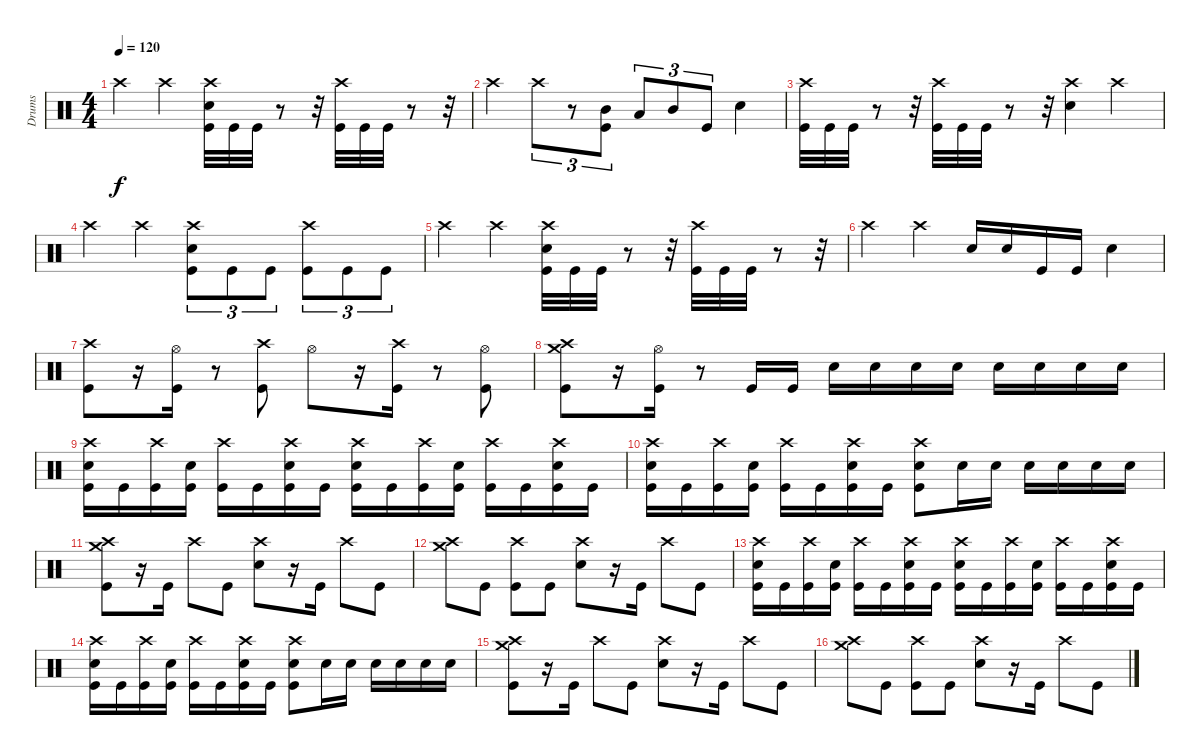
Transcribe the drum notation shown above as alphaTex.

\track ("Drums" "Drums") {instrument percussion}
\staff {score}
\articulation defaults
\ts (4 4)
\tempo 120
\clef neutral
\ks c "Crash high (hit)".4{dy f} "Crash high (hit)".4
("Crash high (hit)" "Snare (hit) 2" "Kick (hit)").32 "Kick (hit)".32 "Kick (hit)".32 r.8 r.32 ("Crash high (hit)" "Kick (hit)").32 "Kick (hit)".32 "Kick (hit)".32 r.8 r.32 |
"Crash high (hit)".4 "Crash high (hit)".8{tu (3 2)} r.8{tu (3 2)} ("Mid Tom (hit)" "Kick (hit)").8{tu (3 2)} "Low Floor Tom (hit)".8{tu (3 2)} "Mid Tom (hit)".8{tu (3 2)} "Kick (hit)".8{tu (3 2)} "Snare (hit) 2".4 |
("Crash high (hit)" "Kick (hit)").32 "Kick (hit)".32 "Kick (hit)".32 r.8 r.32 ("Crash high (hit)" "Kick (hit)").32 "Kick (hit)".32 "Kick (hit)".32 r.8 r.32 ("Crash high (hit)" "Snare (hit) 2").4 "Crash high (hit)".4 |
"Crash high (hit)".4 "Crash high (hit)".4 ("Crash high (hit)" "Snare (hit) 2" "Kick (hit)").8{tu (3 2)} "Kick (hit)".8{tu (3 2)} "Kick (hit)".8{tu (3 2)} ("Crash high (hit)" "Kick (hit)").8{tu (3 2)} "Kick (hit)".8{tu (3 2)} "Kick (hit)".8{tu (3 2)} |
"Crash high (hit)".4 "Crash high (hit)".4 ("Crash high (hit)" "Snare (hit) 2" "Kick (hit)").32 "Kick (hit)".32 "Kick (hit)".32 r.8 r.32 ("Crash high (hit)" "Kick (hit)").32 "Kick (hit)".32 "Kick (hit)".32 r.8 r.32 |
"Crash high (hit)".4 "Crash high (hit)".4 "Snare (hit) 2".16 "Snare (hit) 2".16 "Kick (hit)".16 "Kick (hit)".16 "Snare (hit) 2".4 |
("Crash high (hit)" "Kick (hit)").8 r.16 ("Hi-Hat (open)" "Kick (hit)").16 r.8 ("Crash high (hit)" "Kick (hit)").8 "Hi-Hat (open)".8 r.16 ("Crash high (hit)" "Kick (hit)").16 r.8 ("Hi-Hat (open)" "Kick (hit)").8 |
("Crash high (hit)" "Crash medium (hit)" "Kick (hit)").8 r.16 ("Hi-Hat (open)" "Kick (hit)").16 r.8 "Kick (hit)".16 "Kick (hit)".16 "Snare (hit) 2".16 "Snare (hit) 2".16 "Snare (hit) 2".16 "Snare (hit) 2".16 "Snare (hit) 2".16 "Snare (hit) 2".16 "Snare (hit) 2".16 "Snare (hit) 2".16 |
("Crash high (hit)" "Snare (hit) 2" "Kick (hit)").16 "Kick (hit)".16 ("Crash high (hit)" "Kick (hit)").16 ("Snare (hit) 2" "Kick (hit)").16 ("Crash high (hit)" "Kick (hit)").16 "Kick (hit)".16 ("Crash high (hit)" "Snare (hit) 2" "Kick (hit)").16 "Kick (hit)".16 ("Crash high (hit)" "Snare (hit) 2" "Kick (hit)").16 "Kick (hit)".16 ("Crash high (hit)" "Kick (hit)").16 ("Snare (hit) 2" "Kick (hit)").16 ("Crash high (hit)" "Kick (hit)").16 "Kick (hit)".16 ("Crash high (hit)" "Snare (hit) 2" "Kick (hit)").16 "Kick (hit)".16 |
("Crash high (hit)" "Snare (hit) 2" "Kick (hit)").16 "Kick (hit)".16 ("Crash high (hit)" "Kick (hit)").16 ("Snare (hit) 2" "Kick (hit)").16 ("Crash high (hit)" "Kick (hit)").16 "Kick (hit)".16 ("Crash high (hit)" "Snare (hit) 2" "Kick (hit)").16 "Kick (hit)".16 ("Crash high (hit)" "Snare (hit) 2" "Kick (hit)").8 "Snare (hit) 2".16 "Snare (hit) 2".16 "Snare (hit) 2".16 "Snare (hit) 2".16 "Snare (hit) 2".16 "Snare (hit) 2".16 |
("Crash high (hit)" "Crash medium (hit)" "Kick (hit)").8 r.16 "Kick (hit)".16 "Crash high (hit)".8 "Kick (hit)".8 ("Crash high (hit)" "Snare (hit) 2").8 r.16 "Kick (hit)".16 "Crash high (hit)".8 "Kick (hit)".8 |
("Crash high (hit)" "Crash medium (hit)").8 "Kick (hit)".8 ("Crash high (hit)" "Kick (hit)").8 "Kick (hit)".8 ("Crash high (hit)" "Snare (hit) 2").8 r.16 "Kick (hit)".16 "Crash high (hit)".8 "Kick (hit)".8 |
("Crash high (hit)" "Snare (hit) 2" "Kick (hit)").16 "Kick (hit)".16 ("Crash high (hit)" "Kick (hit)").16 ("Snare (hit) 2" "Kick (hit)").16 ("Crash high (hit)" "Kick (hit)").16 "Kick (hit)".16 ("Crash high (hit)" "Snare (hit) 2" "Kick (hit)").16 "Kick (hit)".16 ("Crash high (hit)" "Snare (hit) 2" "Kick (hit)").16 "Kick (hit)".16 ("Crash high (hit)" "Kick (hit)").16 ("Snare (hit) 2" "Kick (hit)").16 ("Crash high (hit)" "Kick (hit)").16 "Kick (hit)".16 ("Crash high (hit)" "Snare (hit) 2" "Kick (hit)").16 "Kick (hit)".16 |
("Crash high (hit)" "Snare (hit) 2" "Kick (hit)").16 "Kick (hit)".16 ("Crash high (hit)" "Kick (hit)").16 ("Snare (hit) 2" "Kick (hit)").16 ("Crash high (hit)" "Kick (hit)").16 "Kick (hit)".16 ("Crash high (hit)" "Snare (hit) 2" "Kick (hit)").16 "Kick (hit)".16 ("Crash high (hit)" "Snare (hit) 2" "Kick (hit)").8 "Snare (hit) 2".16 "Snare (hit) 2".16 "Snare (hit) 2".16 "Snare (hit) 2".16 "Snare (hit) 2".16 "Snare (hit) 2".16 |
("Crash high (hit)" "Crash medium (hit)" "Kick (hit)").8 r.16 "Kick (hit)".16 "Crash high (hit)".8 "Kick (hit)".8 ("Crash high (hit)" "Snare (hit) 2").8 r.16 "Kick (hit)".16 "Crash high (hit)".8 "Kick (hit)".8 |
("Crash high (hit)" "Crash medium (hit)").8 "Kick (hit)".8 ("Crash high (hit)" "Kick (hit)").8 "Kick (hit)".8 ("Crash high (hit)" "Snare (hit) 2").8 r.16 "Kick (hit)".16 "Crash high (hit)".8 "Kick (hit)".8
